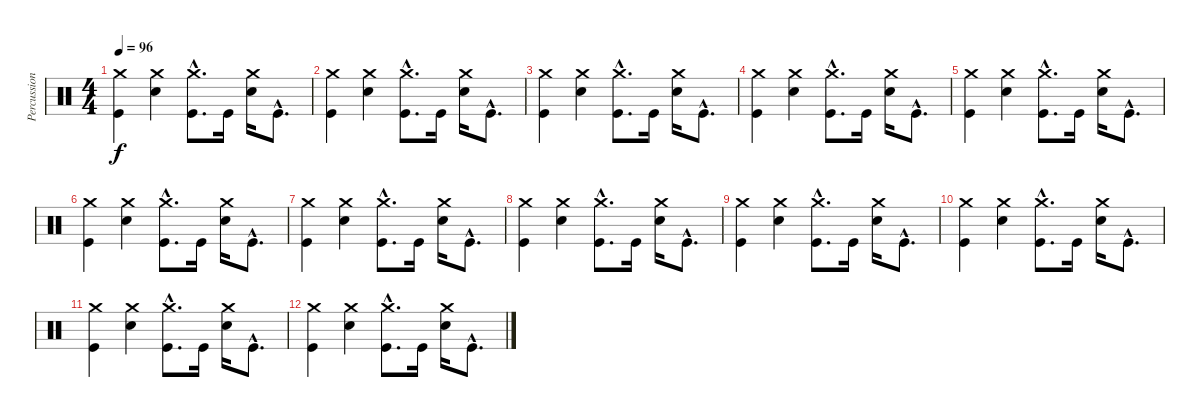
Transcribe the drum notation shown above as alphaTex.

\track ("Percussion" "Percussion") {instrument percussion}
\staff {score}
\articulation defaults
\ts (4 4)
\tempo 96
\clef neutral
\ks c
("Crash medium (hit)" "Kick (hit)").4{dy f} ("Crash medium (hit)" "Electric Snare (hit)").4 ("Crash medium (hit)"{hac} "Kick (hit)"{hac}).8{d} "Kick (hit)".16 ("Crash medium (hit)" "Electric Snare (hit)").16 "Kick (hit)"{hac}.8{d} |
("Crash medium (hit)" "Kick (hit)").4 ("Crash medium (hit)" "Electric Snare (hit)").4 ("Crash medium (hit)"{hac} "Kick (hit)"{hac}).8{d} "Kick (hit)".16 ("Crash medium (hit)" "Electric Snare (hit)").16 "Kick (hit)"{hac}.8{d} |
("Crash medium (hit)" "Kick (hit)").4 ("Crash medium (hit)" "Electric Snare (hit)").4 ("Crash medium (hit)"{hac} "Kick (hit)"{hac}).8{d} "Kick (hit)".16 ("Crash medium (hit)" "Electric Snare (hit)").16 "Kick (hit)"{hac}.8{d} |
("Crash medium (hit)" "Kick (hit)").4 ("Crash medium (hit)" "Electric Snare (hit)").4 ("Crash medium (hit)"{hac} "Kick (hit)"{hac}).8{d} "Kick (hit)".16 ("Crash medium (hit)" "Electric Snare (hit)").16 "Kick (hit)"{hac}.8{d} |
("Crash medium (hit)" "Kick (hit)").4 ("Crash medium (hit)" "Electric Snare (hit)").4 ("Crash medium (hit)"{hac} "Kick (hit)"{hac}).8{d} "Kick (hit)".16 ("Crash medium (hit)" "Electric Snare (hit)").16 "Kick (hit)"{hac}.8{d} |
("Crash medium (hit)" "Kick (hit)").4 ("Crash medium (hit)" "Electric Snare (hit)").4 ("Crash medium (hit)"{hac} "Kick (hit)"{hac}).8{d} "Kick (hit)".16 ("Crash medium (hit)" "Electric Snare (hit)").16 "Kick (hit)"{hac}.8{d} |
("Crash medium (hit)" "Kick (hit)").4 ("Crash medium (hit)" "Electric Snare (hit)").4 ("Crash medium (hit)"{hac} "Kick (hit)"{hac}).8{d} "Kick (hit)".16 ("Crash medium (hit)" "Electric Snare (hit)").16 "Kick (hit)"{hac}.8{d} |
("Crash medium (hit)" "Kick (hit)").4 ("Crash medium (hit)" "Electric Snare (hit)").4 ("Crash medium (hit)"{hac} "Kick (hit)"{hac}).8{d} "Kick (hit)".16 ("Crash medium (hit)" "Electric Snare (hit)").16 "Kick (hit)"{hac}.8{d} |
("Crash medium (hit)" "Kick (hit)").4 ("Crash medium (hit)" "Electric Snare (hit)").4 ("Crash medium (hit)"{hac} "Kick (hit)"{hac}).8{d} "Kick (hit)".16 ("Crash medium (hit)" "Electric Snare (hit)").16 "Kick (hit)"{hac}.8{d} |
("Crash medium (hit)" "Kick (hit)").4 ("Crash medium (hit)" "Electric Snare (hit)").4 ("Crash medium (hit)"{hac} "Kick (hit)"{hac}).8{d} "Kick (hit)".16 ("Crash medium (hit)" "Electric Snare (hit)").16 "Kick (hit)"{hac}.8{d} |
("Crash medium (hit)" "Kick (hit)").4 ("Crash medium (hit)" "Electric Snare (hit)").4 ("Crash medium (hit)"{hac} "Kick (hit)"{hac}).8{d} "Kick (hit)".16 ("Crash medium (hit)" "Electric Snare (hit)").16 "Kick (hit)"{hac}.8{d} |
("Crash medium (hit)" "Kick (hit)").4 ("Crash medium (hit)" "Electric Snare (hit)").4 ("Crash medium (hit)"{hac} "Kick (hit)"{hac}).8{d} "Kick (hit)".16 ("Crash medium (hit)" "Electric Snare (hit)").16 "Kick (hit)"{hac}.8{d}
